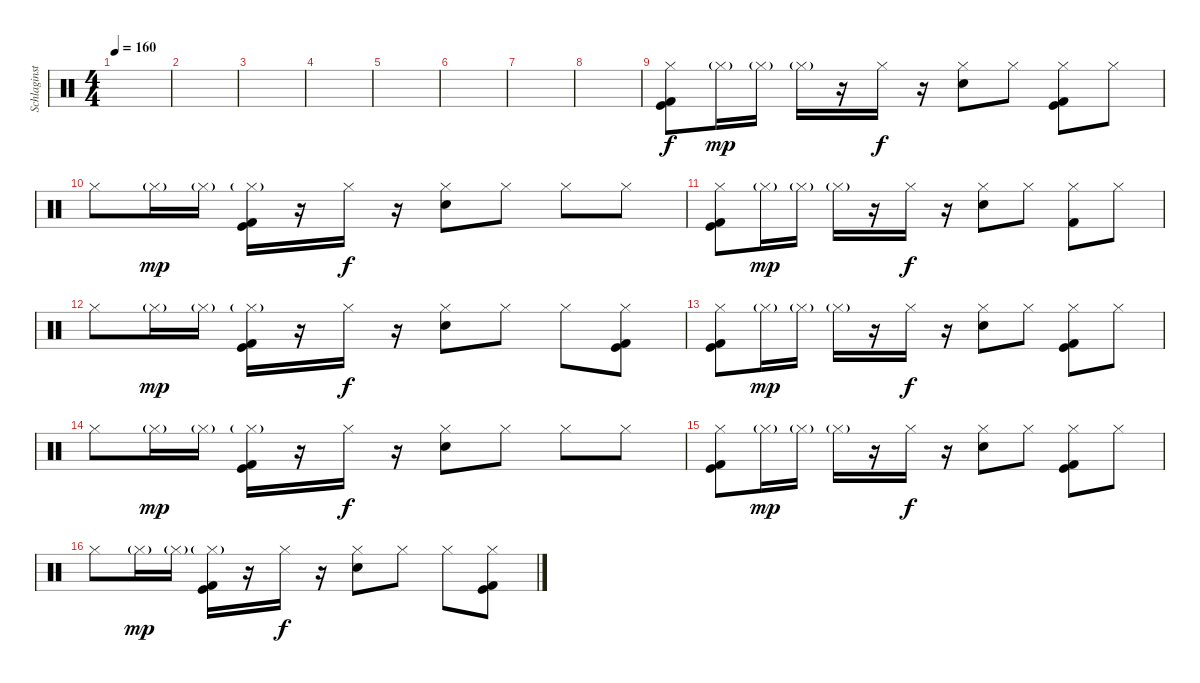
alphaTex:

\track ("Schlaginstrumente - Auswahl" "Schlaginst") {instrument percussion}
\staff {score}
\articulation defaults
\ts (4 4)
\tempo 160
\clef neutral
\ks c
|
|
|
|
|
|
|
|
("Hi-Hat (closed)" "Kick (hit)" "Kick (hit) 2").8 "Hi-Hat (closed)"{g}.16{dy mp} "Hi-Hat (closed)"{g}.16 "Hi-Hat (closed)"{g}.16 r.16 "Hi-Hat (closed)".16{dy f} r.16 ("Hi-Hat (closed)" "Snare (hit) 2").8 "Hi-Hat (closed)".8 ("Hi-Hat (closed)" "Kick (hit)" "Kick (hit) 2").8 "Hi-Hat (closed)".8 |
"Hi-Hat (closed)".8 "Hi-Hat (closed)"{g}.16{dy mp} "Hi-Hat (closed)"{g}.16 ("Hi-Hat (closed)"{g} "Kick (hit)" "Kick (hit) 2").16 r.16 "Hi-Hat (closed)".16{dy f} r.16 ("Hi-Hat (closed)" "Snare (hit) 2").8 "Hi-Hat (closed)".8 "Hi-Hat (closed)".8 "Hi-Hat (closed)".8 |
("Hi-Hat (closed)" "Kick (hit)" "Kick (hit) 2").8 "Hi-Hat (closed)"{g}.16{dy mp} "Hi-Hat (closed)"{g}.16 "Hi-Hat (closed)"{g}.16 r.16 "Hi-Hat (closed)".16{dy f} r.16 ("Hi-Hat (closed)" "Snare (hit) 2").8 "Hi-Hat (closed)".8 ("Hi-Hat (closed)" "Kick (hit) 2").8 "Hi-Hat (closed)".8 |
"Hi-Hat (closed)".8 "Hi-Hat (closed)"{g}.16{dy mp} "Hi-Hat (closed)"{g}.16 ("Hi-Hat (closed)"{g} "Kick (hit)" "Kick (hit) 2").16 r.16 "Hi-Hat (closed)".16{dy f} r.16 ("Hi-Hat (closed)" "Snare (hit) 2").8 "Hi-Hat (closed)".8 "Hi-Hat (closed)".8 ("Hi-Hat (closed)" "Kick (hit)" "Kick (hit) 2").8 |
("Hi-Hat (closed)" "Kick (hit)" "Kick (hit) 2").8 "Hi-Hat (closed)"{g}.16{dy mp} "Hi-Hat (closed)"{g}.16 "Hi-Hat (closed)"{g}.16 r.16 "Hi-Hat (closed)".16{dy f} r.16 ("Hi-Hat (closed)" "Snare (hit) 2").8 "Hi-Hat (closed)".8 ("Hi-Hat (closed)" "Kick (hit)" "Kick (hit) 2").8 "Hi-Hat (closed)".8 |
"Hi-Hat (closed)".8 "Hi-Hat (closed)"{g}.16{dy mp} "Hi-Hat (closed)"{g}.16 ("Hi-Hat (closed)"{g} "Kick (hit)" "Kick (hit) 2").16 r.16 "Hi-Hat (closed)".16{dy f} r.16 ("Hi-Hat (closed)" "Snare (hit) 2").8 "Hi-Hat (closed)".8 "Hi-Hat (closed)".8 "Hi-Hat (closed)".8 |
("Hi-Hat (closed)" "Kick (hit)" "Kick (hit) 2").8 "Hi-Hat (closed)"{g}.16{dy mp} "Hi-Hat (closed)"{g}.16 "Hi-Hat (closed)"{g}.16 r.16 "Hi-Hat (closed)".16{dy f} r.16 ("Hi-Hat (closed)" "Snare (hit) 2").8 "Hi-Hat (closed)".8 ("Hi-Hat (closed)" "Kick (hit)" "Kick (hit) 2").8 "Hi-Hat (closed)".8 |
"Hi-Hat (closed)".8 "Hi-Hat (closed)"{g}.16{dy mp} "Hi-Hat (closed)"{g}.16 ("Hi-Hat (closed)"{g} "Kick (hit)" "Kick (hit) 2").16 r.16 "Hi-Hat (closed)".16{dy f} r.16 ("Hi-Hat (closed)" "Snare (hit) 2").8 "Hi-Hat (closed)".8 "Hi-Hat (closed)".8 ("Hi-Hat (closed)" "Kick (hit)" "Kick (hit) 2").8
